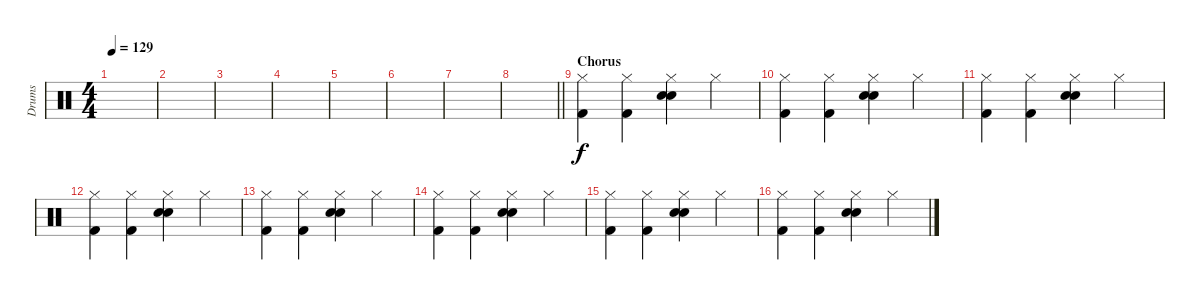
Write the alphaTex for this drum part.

\track ("Drums" "Drums") {instrument percussion}
\staff {score}
\articulation defaults
\ts (4 4)
\tempo 129
\clef neutral
\ks c
|
|
|
|
|
|
|
\barLineRight lightlight
|
\section ("" "Chorus")
("Kick (hit) 2" "Hi-Hat (closed)").4 ("Kick (hit) 2" "Hi-Hat (closed)").4 ("Snare (hit) 2" "Electric Snare (hit)" "Hi-Hat (closed)").4 "Hi-Hat (closed)".4 |
("Kick (hit) 2" "Hi-Hat (closed)").4 ("Kick (hit) 2" "Hi-Hat (closed)").4 ("Snare (hit) 2" "Electric Snare (hit)" "Hi-Hat (closed)").4 "Hi-Hat (closed)".4 |
("Kick (hit) 2" "Hi-Hat (closed)").4 ("Kick (hit) 2" "Hi-Hat (closed)").4 ("Snare (hit) 2" "Electric Snare (hit)" "Hi-Hat (closed)").4 "Hi-Hat (closed)".4 |
("Kick (hit) 2" "Hi-Hat (closed)").4 ("Kick (hit) 2" "Hi-Hat (closed)").4 ("Snare (hit) 2" "Electric Snare (hit)" "Hi-Hat (closed)").4 "Hi-Hat (closed)".4 |
("Kick (hit) 2" "Hi-Hat (closed)").4 ("Kick (hit) 2" "Hi-Hat (closed)").4 ("Snare (hit) 2" "Electric Snare (hit)" "Hi-Hat (closed)").4 "Hi-Hat (closed)".4 |
("Kick (hit) 2" "Hi-Hat (closed)").4 ("Kick (hit) 2" "Hi-Hat (closed)").4 ("Snare (hit) 2" "Electric Snare (hit)" "Hi-Hat (closed)").4 "Hi-Hat (closed)".4 |
("Kick (hit) 2" "Hi-Hat (closed)").4 ("Kick (hit) 2" "Hi-Hat (closed)").4 ("Snare (hit) 2" "Electric Snare (hit)" "Hi-Hat (closed)").4 "Hi-Hat (closed)".4 |
("Kick (hit) 2" "Hi-Hat (closed)").4 ("Kick (hit) 2" "Hi-Hat (closed)").4 ("Snare (hit) 2" "Electric Snare (hit)" "Hi-Hat (closed)").4 "Hi-Hat (closed)".4
